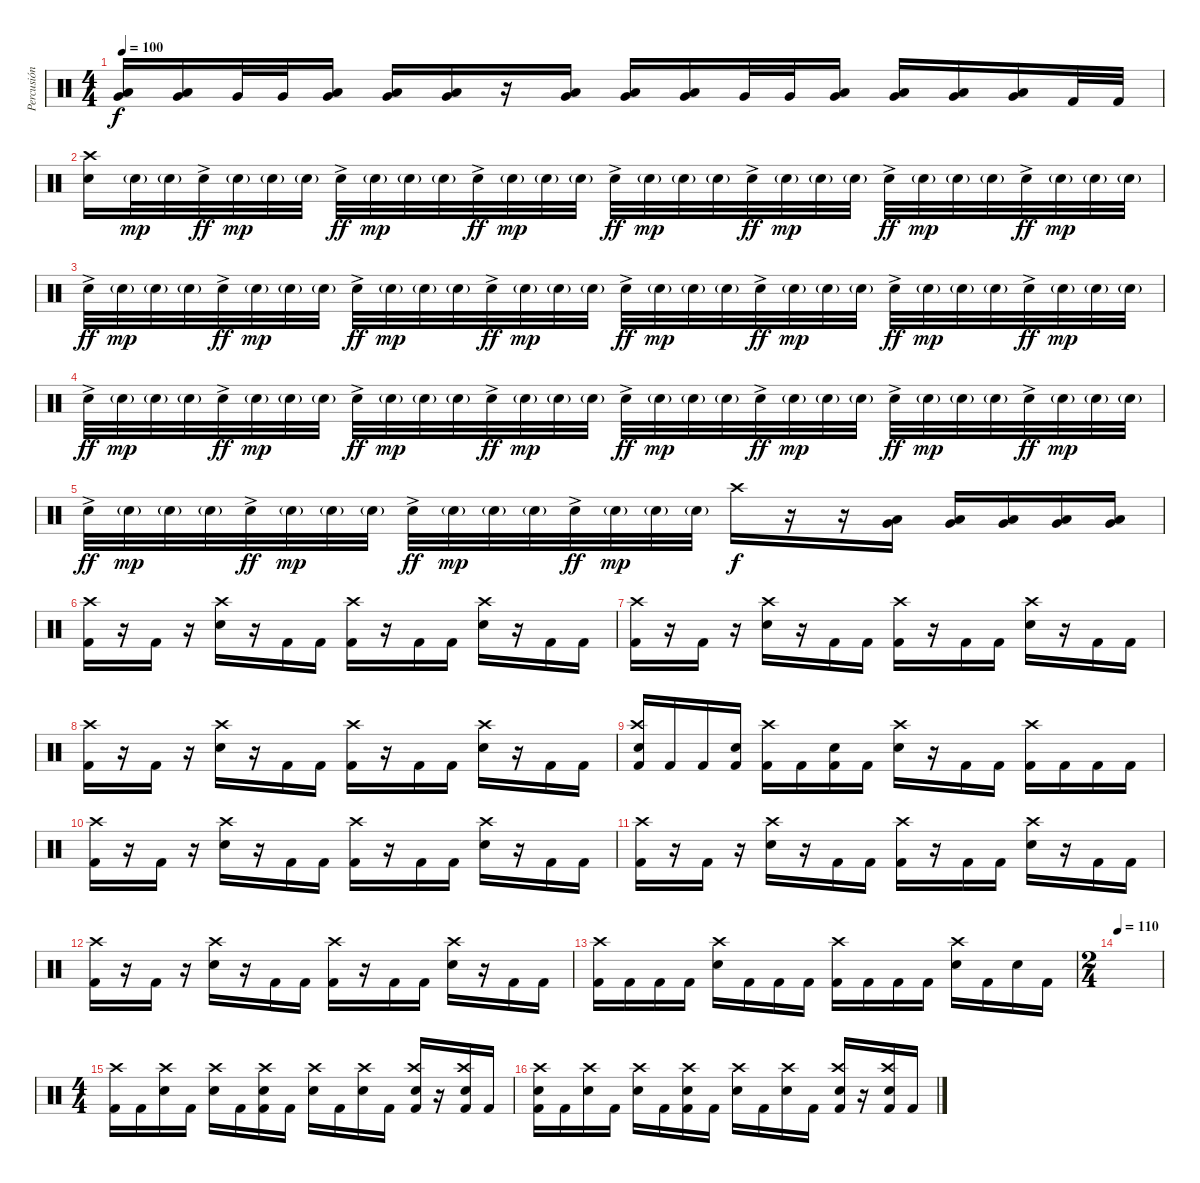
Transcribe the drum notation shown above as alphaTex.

\track ("Percusión" "Percusión") {instrument percussion}
\staff {score}
\articulation defaults
\ts (4 4)
\tempo 100
\clef neutral
\ks c
("Low Floor Tom (hit)" "Very Low Tom (hit)").16{dy f} ("Low Floor Tom (hit)" "Very Low Tom (hit)").16 "Very Low Tom (hit)".32 "Very Low Tom (hit)".32 ("Low Floor Tom (hit)" "Very Low Tom (hit)").16 ("Low Floor Tom (hit)" "Very Low Tom (hit)").16 ("Low Floor Tom (hit)" "Very Low Tom (hit)").16 r.16 ("Low Floor Tom (hit)" "Very Low Tom (hit)").16 ("Low Floor Tom (hit)" "Very Low Tom (hit)").16 ("Low Floor Tom (hit)" "Very Low Tom (hit)").16 "Very Low Tom (hit)".32 "Very Low Tom (hit)".32 ("Low Floor Tom (hit)" "Very Low Tom (hit)").16 ("Low Floor Tom (hit)" "Very Low Tom (hit)").16 ("Low Floor Tom (hit)" "Very Low Tom (hit)").16 ("Low Floor Tom (hit)" "Very Low Tom (hit)").16 "Kick (hit) 2".32 "Kick (hit) 2".32 |
("Crash high (hit)" "Electric Snare (hit)").16 "Electric Snare (hit)"{g}.32{dy mp} "Electric Snare (hit)"{g}.32 "Electric Snare (hit)"{ac}.32{dy ff} "Electric Snare (hit)"{g}.32{dy mp} "Electric Snare (hit)"{g}.32 "Electric Snare (hit)"{g}.32 "Electric Snare (hit)"{ac}.32{dy ff} "Electric Snare (hit)"{g}.32{dy mp} "Electric Snare (hit)"{g}.32 "Electric Snare (hit)"{g}.32 "Electric Snare (hit)"{ac}.32{dy ff} "Electric Snare (hit)"{g}.32{dy mp} "Electric Snare (hit)"{g}.32 "Electric Snare (hit)"{g}.32 "Electric Snare (hit)"{ac}.32{dy ff} "Electric Snare (hit)"{g}.32{dy mp} "Electric Snare (hit)"{g}.32 "Electric Snare (hit)"{g}.32 "Electric Snare (hit)"{ac}.32{dy ff} "Electric Snare (hit)"{g}.32{dy mp} "Electric Snare (hit)"{g}.32 "Electric Snare (hit)"{g}.32 "Electric Snare (hit)"{ac}.32{dy ff} "Electric Snare (hit)"{g}.32{dy mp} "Electric Snare (hit)"{g}.32 "Electric Snare (hit)"{g}.32 "Electric Snare (hit)"{ac}.32{dy ff} "Electric Snare (hit)"{g}.32{dy mp} "Electric Snare (hit)"{g}.32 "Electric Snare (hit)"{g}.32 |
"Electric Snare (hit)"{ac}.32{dy ff} "Electric Snare (hit)"{g}.32{dy mp} "Electric Snare (hit)"{g}.32 "Electric Snare (hit)"{g}.32 "Electric Snare (hit)"{ac}.32{dy ff} "Electric Snare (hit)"{g}.32{dy mp} "Electric Snare (hit)"{g}.32 "Electric Snare (hit)"{g}.32 "Electric Snare (hit)"{ac}.32{dy ff} "Electric Snare (hit)"{g}.32{dy mp} "Electric Snare (hit)"{g}.32 "Electric Snare (hit)"{g}.32 "Electric Snare (hit)"{ac}.32{dy ff} "Electric Snare (hit)"{g}.32{dy mp} "Electric Snare (hit)"{g}.32 "Electric Snare (hit)"{g}.32 "Electric Snare (hit)"{ac}.32{dy ff} "Electric Snare (hit)"{g}.32{dy mp} "Electric Snare (hit)"{g}.32 "Electric Snare (hit)"{g}.32 "Electric Snare (hit)"{ac}.32{dy ff} "Electric Snare (hit)"{g}.32{dy mp} "Electric Snare (hit)"{g}.32 "Electric Snare (hit)"{g}.32 "Electric Snare (hit)"{ac}.32{dy ff} "Electric Snare (hit)"{g}.32{dy mp} "Electric Snare (hit)"{g}.32 "Electric Snare (hit)"{g}.32 "Electric Snare (hit)"{ac}.32{dy ff} "Electric Snare (hit)"{g}.32{dy mp} "Electric Snare (hit)"{g}.32 "Electric Snare (hit)"{g}.32 |
"Electric Snare (hit)"{ac}.32{dy ff} "Electric Snare (hit)"{g}.32{dy mp} "Electric Snare (hit)"{g}.32 "Electric Snare (hit)"{g}.32 "Electric Snare (hit)"{ac}.32{dy ff} "Electric Snare (hit)"{g}.32{dy mp} "Electric Snare (hit)"{g}.32 "Electric Snare (hit)"{g}.32 "Electric Snare (hit)"{ac}.32{dy ff} "Electric Snare (hit)"{g}.32{dy mp} "Electric Snare (hit)"{g}.32 "Electric Snare (hit)"{g}.32 "Electric Snare (hit)"{ac}.32{dy ff} "Electric Snare (hit)"{g}.32{dy mp} "Electric Snare (hit)"{g}.32 "Electric Snare (hit)"{g}.32 "Electric Snare (hit)"{ac}.32{dy ff} "Electric Snare (hit)"{g}.32{dy mp} "Electric Snare (hit)"{g}.32 "Electric Snare (hit)"{g}.32 "Electric Snare (hit)"{ac}.32{dy ff} "Electric Snare (hit)"{g}.32{dy mp} "Electric Snare (hit)"{g}.32 "Electric Snare (hit)"{g}.32 "Electric Snare (hit)"{ac}.32{dy ff} "Electric Snare (hit)"{g}.32{dy mp} "Electric Snare (hit)"{g}.32 "Electric Snare (hit)"{g}.32 "Electric Snare (hit)"{ac}.32{dy ff} "Electric Snare (hit)"{g}.32{dy mp} "Electric Snare (hit)"{g}.32 "Electric Snare (hit)"{g}.32 |
"Electric Snare (hit)"{ac}.32{dy ff} "Electric Snare (hit)"{g}.32{dy mp} "Electric Snare (hit)"{g}.32 "Electric Snare (hit)"{g}.32 "Electric Snare (hit)"{ac}.32{dy ff} "Electric Snare (hit)"{g}.32{dy mp} "Electric Snare (hit)"{g}.32 "Electric Snare (hit)"{g}.32 "Electric Snare (hit)"{ac}.32{dy ff} "Electric Snare (hit)"{g}.32{dy mp} "Electric Snare (hit)"{g}.32 "Electric Snare (hit)"{g}.32 "Electric Snare (hit)"{ac}.32{dy ff} "Electric Snare (hit)"{g}.32{dy mp} "Electric Snare (hit)"{g}.32 "Electric Snare (hit)"{g}.32 "Crash high (hit)".16{dy f} r.16 r.16 ("Low Tom (hit)" "Very Low Tom (hit)").16 ("Low Tom (hit)" "Very Low Tom (hit)").16 ("Low Tom (hit)" "Very Low Tom (hit)").16 ("Low Tom (hit)" "Very Low Tom (hit)").16 ("Low Tom (hit)" "Very Low Tom (hit)").16 |
("Crash high (hit)" "Kick (hit) 2").16 r.16 "Kick (hit) 2".16 r.16 ("Crash high (hit)" "Electric Snare (hit)").16 r.16 "Kick (hit) 2".16 "Kick (hit) 2".16 ("Crash high (hit)" "Kick (hit) 2").16 r.16 "Kick (hit) 2".16 "Kick (hit) 2".16 ("Crash high (hit)" "Electric Snare (hit)").16 r.16 "Kick (hit) 2".16 "Kick (hit) 2".16 |
("Crash high (hit)" "Kick (hit) 2").16 r.16 "Kick (hit) 2".16 r.16 ("Crash high (hit)" "Electric Snare (hit)").16 r.16 "Kick (hit) 2".16 "Kick (hit) 2".16 ("Crash high (hit)" "Kick (hit) 2").16 r.16 "Kick (hit) 2".16 "Kick (hit) 2".16 ("Crash high (hit)" "Electric Snare (hit)").16 r.16 "Kick (hit) 2".16 "Kick (hit) 2".16 |
("Crash high (hit)" "Kick (hit) 2").16 r.16 "Kick (hit) 2".16 r.16 ("Crash high (hit)" "Electric Snare (hit)").16 r.16 "Kick (hit) 2".16 "Kick (hit) 2".16 ("Crash high (hit)" "Kick (hit) 2").16 r.16 "Kick (hit) 2".16 "Kick (hit) 2".16 ("Crash high (hit)" "Electric Snare (hit)").16 r.16 "Kick (hit) 2".16 "Kick (hit) 2".16 |
("Crash high (hit)" "Electric Snare (hit)" "Kick (hit) 2").16 "Kick (hit) 2".16 "Kick (hit) 2".16 ("Electric Snare (hit)" "Kick (hit) 2").16 ("Crash high (hit)" "Kick (hit) 2").16 "Kick (hit) 2".16 ("Electric Snare (hit)" "Kick (hit) 2").16 "Kick (hit) 2".16 ("Crash high (hit)" "Electric Snare (hit)").16 r.16 "Kick (hit) 2".16 "Kick (hit) 2".16 ("Crash high (hit)" "Kick (hit) 2").16 "Kick (hit) 2".16 "Kick (hit) 2".16 "Kick (hit) 2".16 |
("Crash high (hit)" "Kick (hit) 2").16 r.16 "Kick (hit) 2".16 r.16 ("Crash high (hit)" "Electric Snare (hit)").16 r.16 "Kick (hit) 2".16 "Kick (hit) 2".16 ("Crash high (hit)" "Kick (hit) 2").16 r.16 "Kick (hit) 2".16 "Kick (hit) 2".16 ("Crash high (hit)" "Electric Snare (hit)").16 r.16 "Kick (hit) 2".16 "Kick (hit) 2".16 |
("Crash high (hit)" "Kick (hit) 2").16 r.16 "Kick (hit) 2".16 r.16 ("Crash high (hit)" "Electric Snare (hit)").16 r.16 "Kick (hit) 2".16 "Kick (hit) 2".16 ("Crash high (hit)" "Kick (hit) 2").16 r.16 "Kick (hit) 2".16 "Kick (hit) 2".16 ("Crash high (hit)" "Electric Snare (hit)").16 r.16 "Kick (hit) 2".16 "Kick (hit) 2".16 |
("Crash high (hit)" "Kick (hit) 2").16 r.16 "Kick (hit) 2".16 r.16 ("Crash high (hit)" "Electric Snare (hit)").16 r.16 "Kick (hit) 2".16 "Kick (hit) 2".16 ("Crash high (hit)" "Kick (hit) 2").16 r.16 "Kick (hit) 2".16 "Kick (hit) 2".16 ("Crash high (hit)" "Electric Snare (hit)").16 r.16 "Kick (hit) 2".16 "Kick (hit) 2".16 |
("Crash high (hit)" "Kick (hit) 2").16 "Kick (hit) 2".16 "Kick (hit) 2".16 "Kick (hit) 2".16 ("Crash high (hit)" "Electric Snare (hit)").16 "Kick (hit) 2".16 "Kick (hit) 2".16 "Kick (hit) 2".16 ("Crash high (hit)" "Kick (hit) 2").16 "Kick (hit) 2".16 "Kick (hit) 2".16 "Kick (hit) 2".16 ("Crash high (hit)" "Electric Snare (hit)").16 "Kick (hit) 2".16 "Electric Snare (hit)".16 "Kick (hit) 2".16 |
\ts (2 4)
\tempo 110
|
\ts (4 4)
("Crash high (hit)" "Kick (hit) 2").16 "Kick (hit) 2".16 ("Crash high (hit)" "Electric Snare (hit)").16 "Kick (hit) 2".16 ("Crash high (hit)" "Electric Snare (hit)").16 "Kick (hit) 2".16 ("Crash high (hit)" "Electric Snare (hit)" "Kick (hit) 2").16 "Kick (hit) 2".16 ("Crash high (hit)" "Electric Snare (hit)").16 "Kick (hit) 2".16 ("Crash high (hit)" "Electric Snare (hit)").16 "Kick (hit) 2".16 ("Crash high (hit)" "Electric Snare (hit)" "Kick (hit) 2").16 r.16 ("Crash high (hit)" "Electric Snare (hit)" "Kick (hit) 2").16 "Kick (hit) 2".16 |
("Crash high (hit)" "Electric Snare (hit)" "Kick (hit) 2").16 "Kick (hit) 2".16 ("Crash high (hit)" "Electric Snare (hit)").16 "Kick (hit) 2".16 ("Crash high (hit)" "Electric Snare (hit)").16 "Kick (hit) 2".16 ("Crash high (hit)" "Electric Snare (hit)" "Kick (hit) 2").16 "Kick (hit) 2".16 ("Crash high (hit)" "Electric Snare (hit)").16 "Kick (hit) 2".16 ("Crash high (hit)" "Electric Snare (hit)").16 "Kick (hit) 2".16 ("Crash high (hit)" "Electric Snare (hit)" "Kick (hit) 2").16 r.16 ("Crash high (hit)" "Electric Snare (hit)" "Kick (hit) 2").16 "Kick (hit) 2".16
